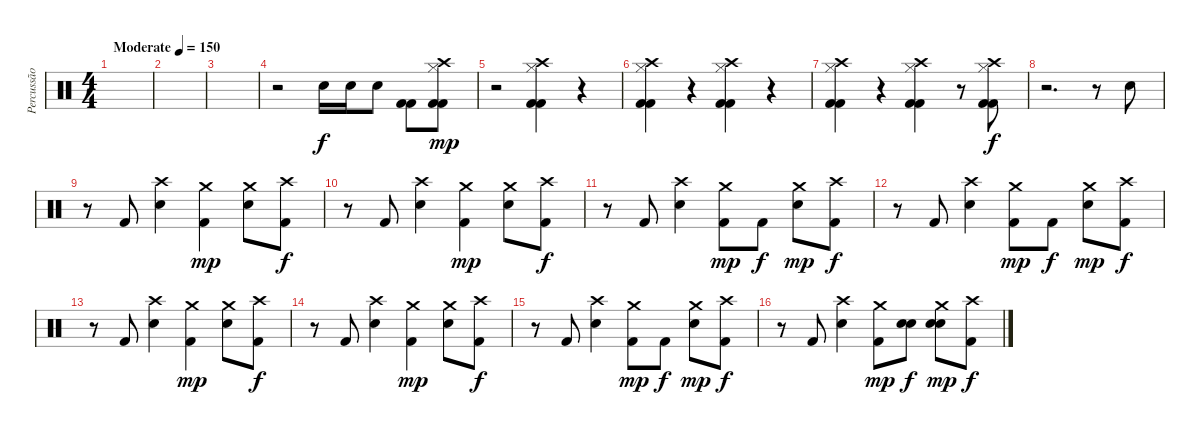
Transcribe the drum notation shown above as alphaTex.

\track ("Percussão" "Percussão") {instrument percussion}
\staff {score}
\articulation defaults
\ts (4 4)
\tempo (150 "Moderate")
\clef neutral
\ks c
|
|
|
r.2 "Snare (hit) 2".16 "Snare (hit) 2".16 "Snare (hit) 2".8 ("Kick (hit) 2" "Kick (hit) 2").8 ("Hi-Hat (closed)" "Crash high (hit)" "Kick (hit) 2" "Kick (hit) 2").8{dy mp} |
r.2 ("Hi-Hat (closed)" "Crash high (hit)" "Kick (hit) 2" "Kick (hit) 2").4 r.4 |
("Hi-Hat (closed)" "Crash high (hit)" "Kick (hit) 2" "Kick (hit) 2").4 r.4 ("Hi-Hat (closed)" "Crash high (hit)" "Kick (hit) 2" "Kick (hit) 2").4 r.4 |
("Hi-Hat (closed)" "Crash high (hit)" "Kick (hit) 2" "Kick (hit) 2").4 r.4 ("Hi-Hat (closed)" "Crash high (hit)" "Kick (hit) 2" "Kick (hit) 2").4 r.8 ("Hi-Hat (closed)" "Crash high (hit)" "Kick (hit) 2" "Kick (hit) 2").8{dy f} |
r.2{d} r.8 "Snare (hit) 2".8 |
r.8 "Kick (hit) 2".8 ("Crash high (hit)" "Snare (hit) 2").4 ("Crash medium (hit)" "Kick (hit) 2").4{dy mp} ("Crash medium (hit)" "Snare (hit) 2").8 ("Crash high (hit)" "Kick (hit) 2").8{dy f} |
r.8 "Kick (hit) 2".8 ("Crash high (hit)" "Snare (hit) 2").4 ("Crash medium (hit)" "Kick (hit) 2").4{dy mp} ("Crash medium (hit)" "Snare (hit) 2").8 ("Crash high (hit)" "Kick (hit) 2").8{dy f} |
r.8 "Kick (hit) 2".8 ("Crash high (hit)" "Snare (hit) 2").4 ("Crash medium (hit)" "Kick (hit) 2").8{dy mp} "Kick (hit) 2".8{dy f} ("Crash medium (hit)" "Snare (hit) 2").8{dy mp} ("Crash high (hit)" "Kick (hit) 2").8{dy f} |
r.8 "Kick (hit) 2".8 ("Crash high (hit)" "Snare (hit) 2").4 ("Crash medium (hit)" "Kick (hit) 2").8{dy mp} "Kick (hit) 2".8{dy f} ("Crash medium (hit)" "Snare (hit) 2").8{dy mp} ("Crash high (hit)" "Kick (hit) 2").8{dy f} |
r.8 "Kick (hit) 2".8 ("Crash high (hit)" "Snare (hit) 2").4 ("Crash medium (hit)" "Kick (hit) 2").4{dy mp} ("Crash medium (hit)" "Snare (hit) 2").8 ("Crash high (hit)" "Kick (hit) 2").8{dy f} |
r.8 "Kick (hit) 2".8 ("Crash high (hit)" "Snare (hit) 2").4 ("Crash medium (hit)" "Kick (hit) 2").4{dy mp} ("Crash medium (hit)" "Snare (hit) 2").8 ("Crash high (hit)" "Kick (hit) 2").8{dy f} |
r.8 "Kick (hit) 2".8 ("Crash high (hit)" "Snare (hit) 2").4 ("Crash medium (hit)" "Kick (hit) 2").8{dy mp} "Kick (hit) 2".8{dy f} ("Crash medium (hit)" "Snare (hit) 2").8{dy mp} ("Crash high (hit)" "Kick (hit) 2").8{dy f} |
r.8 "Kick (hit) 2".8 ("Crash high (hit)" "Snare (hit) 2").4 ("Crash medium (hit)" "Kick (hit) 2").8{dy mp} ("Snare (hit) 2" "Snare (hit) 2").8{dy f} ("Crash medium (hit)" "Snare (hit) 2" "Snare (hit) 2").8{dy mp} ("Crash high (hit)" "Kick (hit) 2").8{dy f}
